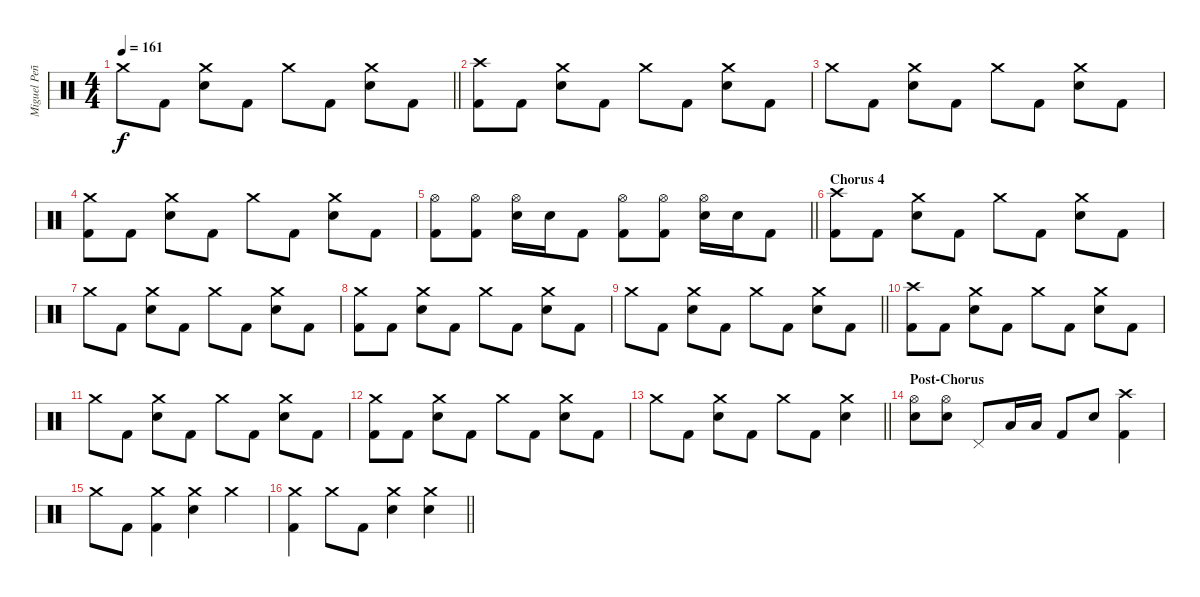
\track ("Miguel Peñas" "Miguel Peñ") {instrument percussion}
\staff {score}
\articulation defaults
\ts (4 4)
\tempo 161
\clef neutral
\barLineRight lightlight
\ks c "Crash medium (hit)".8{dy f} "Kick (hit) 2".8
("Crash medium (hit)" "Electric Snare (hit)").8 "Kick (hit) 2".8 "Crash medium (hit)".8 "Kick (hit) 2".8 ("Crash medium (hit)" "Electric Snare (hit)").8 "Kick (hit) 2".8 |
("Crash high (hit)" "Kick (hit) 2").8 "Kick (hit) 2".8 ("Crash medium (hit)" "Electric Snare (hit)").8 "Kick (hit) 2".8 "Crash medium (hit)".8 "Kick (hit) 2".8 ("Crash medium (hit)" "Electric Snare (hit)").8 "Kick (hit) 2".8 |
"Crash medium (hit)".8 "Kick (hit) 2".8 ("Crash medium (hit)" "Electric Snare (hit)").8 "Kick (hit) 2".8 "Crash medium (hit)".8 "Kick (hit) 2".8 ("Crash medium (hit)" "Electric Snare (hit)").8 "Kick (hit) 2".8 |
("Crash medium (hit)" "Kick (hit) 2").8 "Kick (hit) 2".8 ("Crash medium (hit)" "Electric Snare (hit)").8 "Kick (hit) 2".8 "Crash medium (hit)".8 "Kick (hit) 2".8 ("Crash medium (hit)" "Electric Snare (hit)").8 "Kick (hit) 2".8 |
\barLineRight lightlight
("Hi-Hat (open)" "Kick (hit) 2").8 ("Hi-Hat (open)" "Kick (hit) 2").8 ("Hi-Hat (open)" "Electric Snare (hit)").16 "Electric Snare (hit)".16 "Kick (hit) 2".8 ("Hi-Hat (open)" "Kick (hit) 2").8 ("Hi-Hat (open)" "Kick (hit) 2").8 ("Hi-Hat (open)" "Electric Snare (hit)").16 "Electric Snare (hit)".16 "Kick (hit) 2".8 |
\section ("" "Chorus 4")
("Crash high (hit)" "Kick (hit) 2").8 "Kick (hit) 2".8 ("Crash medium (hit)" "Electric Snare (hit)").8 "Kick (hit) 2".8 "Crash medium (hit)".8 "Kick (hit) 2".8 ("Crash medium (hit)" "Electric Snare (hit)").8 "Kick (hit) 2".8 |
"Crash medium (hit)".8 "Kick (hit) 2".8 ("Crash medium (hit)" "Electric Snare (hit)").8 "Kick (hit) 2".8 "Crash medium (hit)".8 "Kick (hit) 2".8 ("Crash medium (hit)" "Electric Snare (hit)").8 "Kick (hit) 2".8 |
("Crash medium (hit)" "Kick (hit) 2").8 "Kick (hit) 2".8 ("Crash medium (hit)" "Electric Snare (hit)").8 "Kick (hit) 2".8 "Crash medium (hit)".8 "Kick (hit) 2".8 ("Crash medium (hit)" "Electric Snare (hit)").8 "Kick (hit) 2".8 |
\barLineRight lightlight "Crash medium (hit)".8 "Kick (hit) 2".8
("Crash medium (hit)" "Electric Snare (hit)").8 "Kick (hit) 2".8 "Crash medium (hit)".8 "Kick (hit) 2".8 ("Crash medium (hit)" "Electric Snare (hit)").8 "Kick (hit) 2".8 |
("Crash high (hit)" "Kick (hit) 2").8 "Kick (hit) 2".8 ("Crash medium (hit)" "Electric Snare (hit)").8 "Kick (hit) 2".8 "Crash medium (hit)".8 "Kick (hit) 2".8 ("Crash medium (hit)" "Electric Snare (hit)").8 "Kick (hit) 2".8 |
"Crash medium (hit)".8 "Kick (hit) 2".8 ("Crash medium (hit)" "Electric Snare (hit)").8 "Kick (hit) 2".8 "Crash medium (hit)".8 "Kick (hit) 2".8 ("Crash medium (hit)" "Electric Snare (hit)").8 "Kick (hit) 2".8 |
("Crash medium (hit)" "Kick (hit) 2").8 "Kick (hit) 2".8 ("Crash medium (hit)" "Electric Snare (hit)").8 "Kick (hit) 2".8 "Crash medium (hit)".8 "Kick (hit) 2".8 ("Crash medium (hit)" "Electric Snare (hit)").8 "Kick (hit) 2".8 |
\barLineRight lightlight "Crash medium (hit)".8 "Kick (hit) 2".8
("Crash medium (hit)" "Electric Snare (hit)").8 "Kick (hit) 2".8 "Crash medium (hit)".8 "Kick (hit) 2".8 ("Crash medium (hit)" "Electric Snare (hit)").4 |
\section ("" "Post-Chorus")
("Hi-Hat (open)" "Electric Snare (hit)").8 ("Hi-Hat (open)" "Electric Snare (hit)").8 "Pedal Hi-Hat (hit)".8 "Low Tom (hit)".16 "Low Floor Tom (hit)".16 "Kick (hit) 2".8 "Electric Snare (hit)".8 ("Crash high (hit)" "Kick (hit) 2").4 |
"Crash medium (hit)".8 "Kick (hit) 2".8 ("Crash medium (hit)" "Kick (hit) 2").4 ("Crash medium (hit)" "Electric Snare (hit)").4 "Crash medium (hit)".4 |
\barLineRight lightlight
("Crash medium (hit)" "Kick (hit) 2").4 "Crash medium (hit)".8 "Kick (hit) 2".8 ("Crash medium (hit)" "Electric Snare (hit)").4 ("Crash medium (hit)" "Electric Snare (hit)").4
